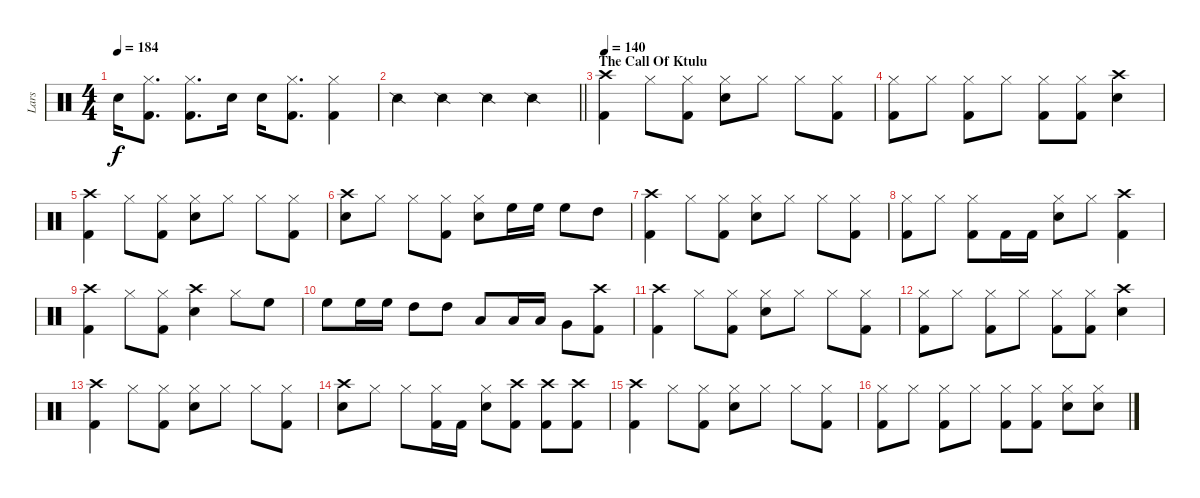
\track ("Lars" "Lars") {instrument percussion}
\staff {score}
\articulation defaults
\ts (4 4)
\tempo 184
\clef neutral
\ks c "Snare (hit) 2".16{dy f}
("Hi-Hat (closed)" "Kick (hit) 2").8{d} ("Hi-Hat (closed)" "Kick (hit) 2").8{d} "Snare (hit) 2".16 "Snare (hit) 2".16 ("Hi-Hat (closed)" "Kick (hit) 2").8{d} ("Hi-Hat (closed)" "Kick (hit) 2").4 |
\barLineRight lightlight "Snare (side stick) 2".4 "Snare (side stick) 2".4 "Snare (side stick) 2".4 "Snare (side stick) 2".4
|
\section ("" "The Call Of Ktulu")
\tempo 140
("Crash high (hit)" "Kick (hit) 2").4 "Hi-Hat (closed)".8 ("Hi-Hat (closed)" "Kick (hit) 2").8 ("Hi-Hat (closed)" "Snare (hit) 2").8 "Hi-Hat (closed)".8 "Hi-Hat (closed)".8 ("Hi-Hat (closed)" "Kick (hit) 2").8 |
("Hi-Hat (closed)" "Kick (hit) 2").8 "Hi-Hat (closed)".8 ("Hi-Hat (closed)" "Kick (hit) 2").8 "Hi-Hat (closed)".8 ("Hi-Hat (closed)" "Kick (hit) 2").8 ("Hi-Hat (closed)" "Kick (hit) 2").8 ("Crash high (hit)" "Snare (hit) 2").4 |
("Crash high (hit)" "Kick (hit) 2").4 "Hi-Hat (closed)".8 ("Hi-Hat (closed)" "Kick (hit) 2").8 ("Hi-Hat (closed)" "Snare (hit) 2").8 "Hi-Hat (closed)".8 "Hi-Hat (closed)".8 ("Hi-Hat (closed)" "Kick (hit) 2").8 |
("Crash high (hit)" "Snare (hit) 2").8 "Hi-Hat (closed)".8 "Hi-Hat (closed)".8 ("Hi-Hat (closed)" "Kick (hit) 2").8 ("Hi-Hat (closed)" "Snare (hit) 2").8 "High Floor Tom (hit)".16 "High Floor Tom (hit)".16 "High Floor Tom (hit)".8 "High Tom (hit)".8 |
("Crash high (hit)" "Kick (hit) 2").4 "Hi-Hat (closed)".8 ("Hi-Hat (closed)" "Kick (hit) 2").8 ("Hi-Hat (closed)" "Snare (hit) 2").8 "Hi-Hat (closed)".8 "Hi-Hat (closed)".8 ("Hi-Hat (closed)" "Kick (hit) 2").8 |
("Hi-Hat (closed)" "Kick (hit) 2").8 "Hi-Hat (closed)".8 ("Hi-Hat (closed)" "Kick (hit) 2").8 "Kick (hit) 2".16 "Kick (hit) 2".16 ("Hi-Hat (closed)" "Snare (hit) 2").8 "Hi-Hat (closed)".8 ("Crash high (hit)" "Kick (hit) 2").4 |
("Crash high (hit)" "Kick (hit) 2").4 "Hi-Hat (closed)".8 ("Hi-Hat (closed)" "Kick (hit) 2").8 ("Crash high (hit)" "Snare (hit) 2").4 "Hi-Hat (closed)".8 "High Floor Tom (hit)".8 |
"High Floor Tom (hit)".8 "High Floor Tom (hit)".16 "High Floor Tom (hit)".16 "High Tom (hit)".8 "High Tom (hit)".8 "Low Tom (hit)".8 "Low Tom (hit)".16 "Low Tom (hit)".16 "Very Low Tom (hit)".8 ("Crash high (hit)" "Kick (hit) 2").8 |
("Crash high (hit)" "Kick (hit) 2").4 "Hi-Hat (closed)".8 ("Hi-Hat (closed)" "Kick (hit) 2").8 ("Hi-Hat (closed)" "Snare (hit) 2").8 "Hi-Hat (closed)".8 "Hi-Hat (closed)".8 ("Hi-Hat (closed)" "Kick (hit) 2").8 |
("Hi-Hat (closed)" "Kick (hit) 2").8 "Hi-Hat (closed)".8 ("Hi-Hat (closed)" "Kick (hit) 2").8 "Hi-Hat (closed)".8 ("Hi-Hat (closed)" "Kick (hit) 2").8 ("Hi-Hat (closed)" "Kick (hit) 2").8 ("Crash high (hit)" "Snare (hit) 2").4 |
("Crash high (hit)" "Kick (hit) 2").4 "Hi-Hat (closed)".8 ("Hi-Hat (closed)" "Kick (hit) 2").8 ("Hi-Hat (closed)" "Snare (hit) 2").8 "Hi-Hat (closed)".8 "Hi-Hat (closed)".8 ("Hi-Hat (closed)" "Kick (hit) 2").8 |
("Crash high (hit)" "Snare (hit) 2").8 "Hi-Hat (closed)".8 "Hi-Hat (closed)".8 ("Hi-Hat (closed)" "Kick (hit) 2").16 "Kick (hit) 2".16 ("Hi-Hat (closed)" "Snare (hit) 2").8 ("Crash high (hit)" "Kick (hit) 2").8 ("Crash high (hit)" "Kick (hit) 2").8 ("Crash high (hit)" "Kick (hit) 2").8 |
("Crash high (hit)" "Kick (hit) 2").4 "Hi-Hat (closed)".8 ("Hi-Hat (closed)" "Kick (hit) 2").8 ("Hi-Hat (closed)" "Snare (hit) 2").8 "Hi-Hat (closed)".8 "Hi-Hat (closed)".8 ("Hi-Hat (closed)" "Kick (hit) 2").8 |
("Hi-Hat (closed)" "Kick (hit) 2").8 "Hi-Hat (closed)".8 ("Hi-Hat (closed)" "Kick (hit) 2").8 "Hi-Hat (closed)".8 ("Hi-Hat (closed)" "Kick (hit) 2").8 ("Hi-Hat (closed)" "Kick (hit) 2").8 ("Hi-Hat (closed)" "Snare (hit) 2").8 ("Hi-Hat (closed)" "Snare (hit) 2").8
